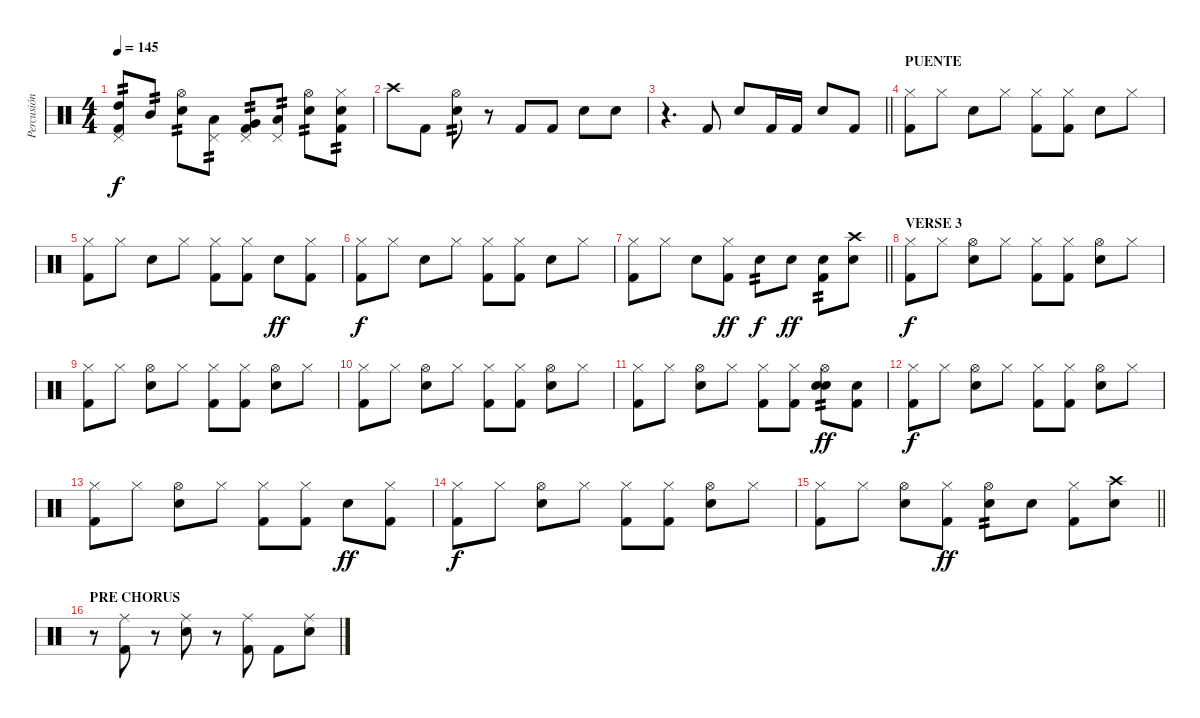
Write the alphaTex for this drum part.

\track ("Percusión" "Percusión") {instrument percussion}
\staff {score}
\articulation defaults
\ts (4 4)
\tempo 145
\clef neutral
\ks c
("Pedal Hi-Hat (hit)" "High Tom (hit)" "Kick (hit) 2").8{tp 2 dy f} "Mid Tom (hit)".8{tp 2} ("Hi-Hat (open)" "Snare (hit) 2").8{tp 2} ("Pedal Hi-Hat (hit)" "Low Tom (hit)").8{tp 2} ("Pedal Hi-Hat (hit)" "Very Low Tom (hit)" "Kick (hit) 2").8{tp 2} ("Pedal Hi-Hat (hit)" "Low Floor Tom (hit)").8{tp 2} ("Hi-Hat (open)" "Snare (hit) 2").8{tp 2} ("Hi-Hat (closed)" "Snare (hit) 2" "Kick (hit) 2").8{tp 2} |
"Crash high (hit)".8 "Kick (hit) 2".8 ("Hi-Hat (open)" "Snare (hit) 2").8{tp 2} r.8 "Kick (hit) 2".8 "Kick (hit) 2".8 "Snare (hit) 2".8 "Snare (hit) 2".8 |
\barLineRight lightlight
r.4{d} "Kick (hit) 2".8 "Snare (hit) 2".8 "Kick (hit) 2".16 "Kick (hit) 2".16 "Snare (hit) 2".8 "Kick (hit) 2".8 |
\section ("" "PUENTE")
("Hi-Hat (closed)" "Kick (hit) 2").8 "Hi-Hat (closed)".8 "Snare (hit) 2".8 "Hi-Hat (closed)".8 ("Hi-Hat (closed)" "Kick (hit) 2").8 ("Hi-Hat (closed)" "Kick (hit) 2").8 "Snare (hit) 2".8 "Hi-Hat (closed)".8 |
("Hi-Hat (closed)" "Kick (hit) 2").8 "Hi-Hat (closed)".8 "Snare (hit) 2".8 "Hi-Hat (closed)".8 ("Hi-Hat (closed)" "Kick (hit) 2").8 ("Hi-Hat (closed)" "Kick (hit) 2").8 "Snare (hit) 2".8{dy ff} ("Hi-Hat (closed)" "Kick (hit) 2").8 |
("Hi-Hat (closed)" "Kick (hit) 2").8{dy f} "Hi-Hat (closed)".8 "Snare (hit) 2".8 "Hi-Hat (closed)".8 ("Hi-Hat (closed)" "Kick (hit) 2").8 ("Hi-Hat (closed)" "Kick (hit) 2").8 "Snare (hit) 2".8 "Hi-Hat (closed)".8 |
\barLineRight lightlight
("Hi-Hat (closed)" "Kick (hit) 2").8 "Hi-Hat (closed)".8 "Snare (hit) 2".8 ("Hi-Hat (closed)" "Kick (hit) 2").8{dy ff} "Snare (hit) 2".8{tp 2 dy f} "Snare (hit) 2".8{dy ff} ("Snare (hit) 2" "Kick (hit) 2").8{tp 2} ("Snare (hit) 2" "Crash high (hit)").8 |
\section ("" "VERSE 3")
("Hi-Hat (closed)" "Kick (hit) 2").8{dy f} "Hi-Hat (closed)".8 ("Snare (hit) 2" "Hi-Hat (open)").8 "Hi-Hat (closed)".8 ("Hi-Hat (closed)" "Kick (hit) 2").8 ("Hi-Hat (closed)" "Kick (hit) 2").8 ("Snare (hit) 2" "Hi-Hat (open)").8 "Hi-Hat (closed)".8 |
("Hi-Hat (closed)" "Kick (hit) 2").8 "Hi-Hat (closed)".8 ("Snare (hit) 2" "Hi-Hat (open)").8 "Hi-Hat (closed)".8 ("Hi-Hat (closed)" "Kick (hit) 2").8 ("Hi-Hat (closed)" "Kick (hit) 2").8 ("Snare (hit) 2" "Hi-Hat (open)").8 "Hi-Hat (closed)".8 |
("Hi-Hat (closed)" "Kick (hit) 2").8 "Hi-Hat (closed)".8 ("Snare (hit) 2" "Hi-Hat (open)").8 "Hi-Hat (closed)".8 ("Hi-Hat (closed)" "Kick (hit) 2").8 ("Hi-Hat (closed)" "Kick (hit) 2").8 ("Snare (hit) 2" "Hi-Hat (open)").8 "Hi-Hat (closed)".8 |
("Hi-Hat (closed)" "Kick (hit) 2").8 "Hi-Hat (closed)".8 ("Snare (hit) 2" "Hi-Hat (open)").8 "Hi-Hat (closed)".8 ("Hi-Hat (closed)" "Kick (hit) 2").8 ("Hi-Hat (closed)" "Kick (hit) 2").8 ("Snare (hit) 2" "Snare (hit) 2" "Hi-Hat (open)").8{tp 2 dy ff} ("Snare (hit) 2" "Kick (hit) 2").8 |
("Hi-Hat (closed)" "Kick (hit) 2").8{dy f} "Hi-Hat (closed)".8 ("Snare (hit) 2" "Hi-Hat (open)").8 "Hi-Hat (closed)".8 ("Hi-Hat (closed)" "Kick (hit) 2").8 ("Hi-Hat (closed)" "Kick (hit) 2").8 ("Snare (hit) 2" "Hi-Hat (open)").8 "Hi-Hat (closed)".8 |
("Hi-Hat (closed)" "Kick (hit) 2").8 "Hi-Hat (closed)".8 ("Snare (hit) 2" "Hi-Hat (open)").8 "Hi-Hat (closed)".8 ("Hi-Hat (closed)" "Kick (hit) 2").8 ("Hi-Hat (closed)" "Kick (hit) 2").8 "Snare (hit) 2".8{dy ff} ("Hi-Hat (closed)" "Kick (hit) 2").8 |
("Hi-Hat (closed)" "Kick (hit) 2").8{dy f} "Hi-Hat (closed)".8 ("Snare (hit) 2" "Hi-Hat (open)").8 "Hi-Hat (closed)".8 ("Hi-Hat (closed)" "Kick (hit) 2").8 ("Hi-Hat (closed)" "Kick (hit) 2").8 ("Snare (hit) 2" "Hi-Hat (open)").8 "Hi-Hat (closed)".8 |
\barLineRight lightlight
("Hi-Hat (closed)" "Kick (hit) 2").8 "Hi-Hat (closed)".8 ("Snare (hit) 2" "Hi-Hat (open)").8 ("Hi-Hat (closed)" "Kick (hit) 2").8{dy ff} ("Snare (hit) 2" "Hi-Hat (open)").8{tp 2} "Snare (hit) 2".8 ("Hi-Hat (closed)" "Kick (hit) 2").8 ("Snare (hit) 2" "Crash high (hit)").8 |
\section ("" "PRE CHORUS")
r.8 ("Ride (middle)" "Kick (hit) 2").8 r.8 ("Ride (middle)" "Snare (hit) 2").8 r.8 ("Ride (middle)" "Kick (hit) 2").8 "Kick (hit) 2".8 ("Ride (middle)" "Snare (hit) 2").8
